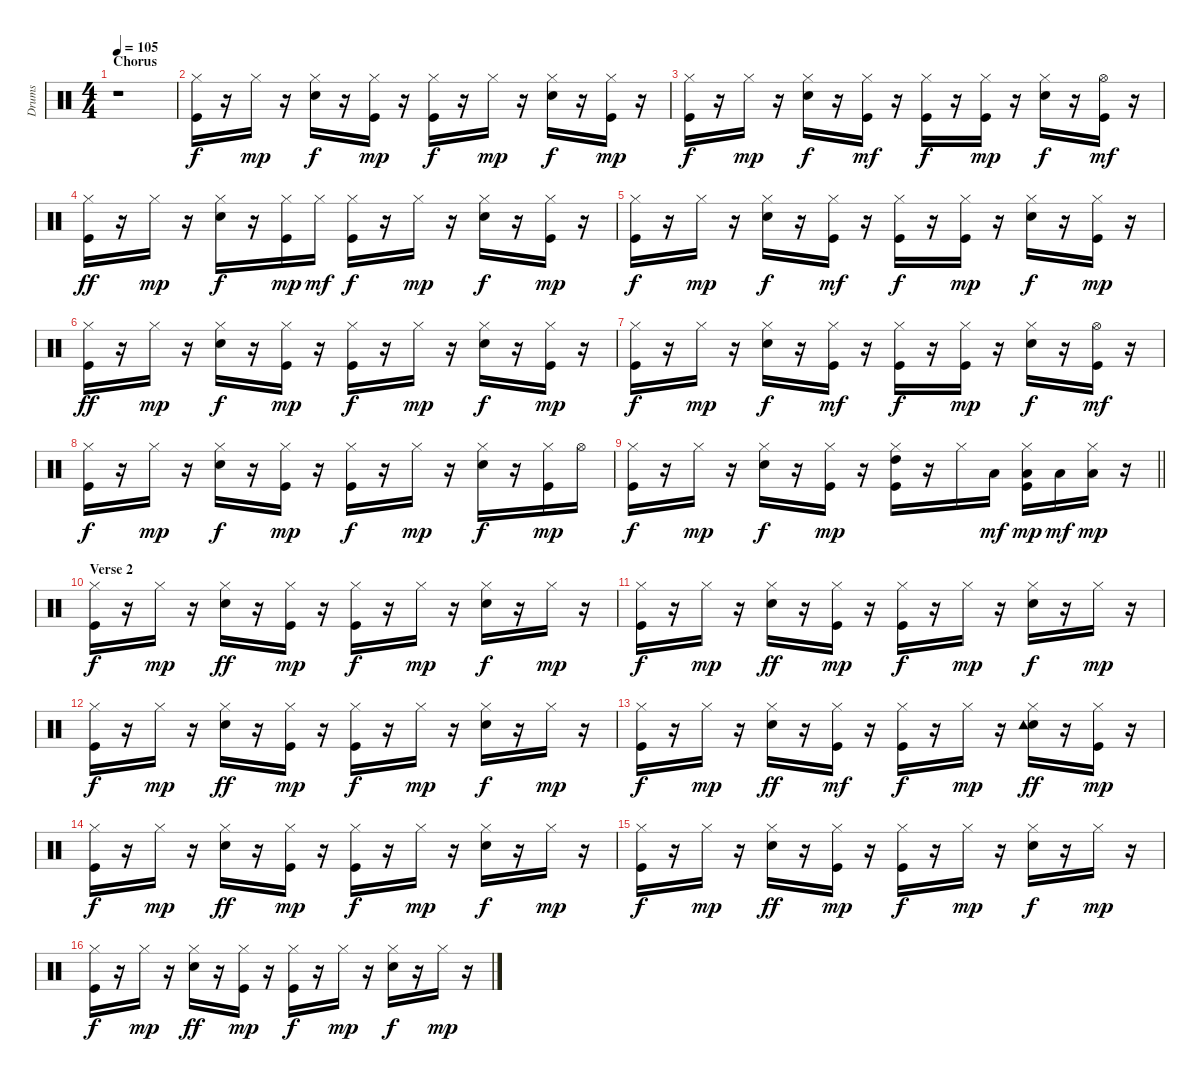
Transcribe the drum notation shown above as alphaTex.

\track ("Drums   " "Drums   ") {instrument percussion}
\staff {score}
\articulation defaults
\ts (4 4)
\section ("" "Chorus")
\tempo 105
\clef neutral
\ks c
r.1{dy f} |
("Kick (hit)" "Hi-Hat (closed)").16 r.16 "Hi-Hat (closed)".16{dy mp} r.16 ("Snare (hit) 2" "Hi-Hat (closed)").16{dy f} r.16 ("Kick (hit)" "Hi-Hat (closed)").16{dy mp} r.16 ("Kick (hit)" "Hi-Hat (closed)").16{dy f} r.16 "Hi-Hat (closed)".16{dy mp} r.16 ("Snare (hit) 2" "Hi-Hat (closed)").16{dy f} r.16 ("Kick (hit)" "Hi-Hat (closed)").16{dy mp} r.16 |
("Kick (hit)" "Hi-Hat (closed)").16{dy f} r.16 "Hi-Hat (closed)".16{dy mp} r.16 ("Snare (hit) 2" "Hi-Hat (closed)").16{dy f} r.16 ("Kick (hit)" "Hi-Hat (closed)").16{dy mf} r.16 ("Kick (hit)" "Hi-Hat (closed)").16{dy f} r.16 ("Kick (hit)" "Hi-Hat (closed)").16{dy mp} r.16 ("Snare (hit) 2" "Hi-Hat (closed)").16{dy f} r.16 ("Kick (hit)" "Hi-Hat (open)").16{dy mf} r.16 |
("Kick (hit)" "Hi-Hat (closed)").16{dy ff} r.16 "Hi-Hat (closed)".16{dy mp} r.16 ("Snare (hit) 2" "Hi-Hat (closed)").16{dy f} r.16 ("Kick (hit)" "Hi-Hat (closed)").16{dy mp} "Hi-Hat (closed)".16{dy mf} ("Kick (hit)" "Hi-Hat (closed)").16{dy f} r.16 "Hi-Hat (closed)".16{dy mp} r.16 ("Snare (hit) 2" "Hi-Hat (closed)").16{dy f} r.16 ("Kick (hit)" "Hi-Hat (closed)").16{dy mp} r.16 |
("Kick (hit)" "Hi-Hat (closed)").16{dy f} r.16 "Hi-Hat (closed)".16{dy mp} r.16 ("Snare (hit) 2" "Hi-Hat (closed)").16{dy f} r.16 ("Kick (hit)" "Hi-Hat (closed)").16{dy mf} r.16 ("Kick (hit)" "Hi-Hat (closed)").16{dy f} r.16 ("Kick (hit)" "Hi-Hat (closed)").16{dy mp} r.16 ("Snare (hit) 2" "Hi-Hat (closed)").16{dy f} r.16 ("Kick (hit)" "Hi-Hat (closed)").16{dy mp} r.16 |
("Kick (hit)" "Hi-Hat (closed)").16{dy ff} r.16 "Hi-Hat (closed)".16{dy mp} r.16 ("Snare (hit) 2" "Hi-Hat (closed)").16{dy f} r.16 ("Kick (hit)" "Hi-Hat (closed)").16{dy mp} r.16 ("Kick (hit)" "Hi-Hat (closed)").16{dy f} r.16 "Hi-Hat (closed)".16{dy mp} r.16 ("Snare (hit) 2" "Hi-Hat (closed)").16{dy f} r.16 ("Kick (hit)" "Hi-Hat (closed)").16{dy mp} r.16 |
("Kick (hit)" "Hi-Hat (closed)").16{dy f} r.16 "Hi-Hat (closed)".16{dy mp} r.16 ("Snare (hit) 2" "Hi-Hat (closed)").16{dy f} r.16 ("Kick (hit)" "Hi-Hat (closed)").16{dy mf} r.16 ("Kick (hit)" "Hi-Hat (closed)").16{dy f} r.16 ("Kick (hit)" "Hi-Hat (closed)").16{dy mp} r.16 ("Snare (hit) 2" "Hi-Hat (closed)").16{dy f} r.16 ("Kick (hit)" "Hi-Hat (open)").16{dy mf} r.16 |
("Kick (hit)" "Hi-Hat (closed)").16{dy f} r.16 "Hi-Hat (closed)".16{dy mp} r.16 ("Snare (hit) 2" "Hi-Hat (closed)").16{dy f} r.16 ("Kick (hit)" "Hi-Hat (closed)").16{dy mp} r.16 ("Kick (hit)" "Hi-Hat (closed)").16{dy f} r.16 "Hi-Hat (closed)".16{dy mp} r.16 ("Snare (hit) 2" "Hi-Hat (closed)").16{dy f} r.16 ("Kick (hit)" "Hi-Hat (closed)").16{dy mp} "Hi-Hat (open)".16 |
\barLineRight lightlight
("Kick (hit)" "Hi-Hat (closed)").16{dy f} r.16 "Hi-Hat (closed)".16{dy mp} r.16 ("Snare (hit) 2" "Hi-Hat (closed)").16{dy f} r.16 ("Kick (hit)" "Hi-Hat (closed)").16{dy mp} r.16 ("Kick (hit)" "Hi-Hat (closed)" "High Tom (hit)").16 r.16 "Hi-Hat (closed)".16 "Low Tom (hit)".16{dy mf} ("Kick (hit)" "Hi-Hat (closed)" "Low Tom (hit)").16{dy mp} "Low Floor Tom (hit)".16{dy mf} ("Hi-Hat (closed)" "Low Floor Tom (hit)").16{dy mp} r.16 |
\section ("" "Verse 2")
("Kick (hit)" "Hi-Hat (closed)").16{dy f} r.16 "Hi-Hat (closed)".16{dy mp} r.16 ("Snare (hit) 2" "Hi-Hat (closed)").16{dy ff} r.16 ("Kick (hit)" "Hi-Hat (closed)").16{dy mp} r.16 ("Kick (hit)" "Hi-Hat (closed)").16{dy f} r.16 "Hi-Hat (closed)".16{dy mp} r.16 ("Snare (hit) 2" "Hi-Hat (closed)").16{dy f} r.16 "Hi-Hat (closed)".16{dy mp} r.16 |
("Kick (hit)" "Hi-Hat (closed)").16{dy f} r.16 "Hi-Hat (closed)".16{dy mp} r.16 ("Snare (hit) 2" "Hi-Hat (closed)").16{dy ff} r.16 ("Kick (hit)" "Hi-Hat (closed)").16{dy mp} r.16 ("Kick (hit)" "Hi-Hat (closed)").16{dy f} r.16 "Hi-Hat (closed)".16{dy mp} r.16 ("Snare (hit) 2" "Hi-Hat (closed)").16{dy f} r.16 "Hi-Hat (closed)".16{dy mp} r.16 |
("Kick (hit)" "Hi-Hat (closed)").16{dy f} r.16 "Hi-Hat (closed)".16{dy mp} r.16 ("Snare (hit) 2" "Hi-Hat (closed)").16{dy ff} r.16 ("Kick (hit)" "Hi-Hat (closed)").16{dy mp} r.16 ("Kick (hit)" "Hi-Hat (closed)").16{dy f} r.16 "Hi-Hat (closed)".16{dy mp} r.16 ("Snare (hit) 2" "Hi-Hat (closed)").16{dy f} r.16 "Hi-Hat (closed)".16{dy mp} r.16 |
("Kick (hit)" "Hi-Hat (closed)").16{dy f} r.16 "Hi-Hat (closed)".16{dy mp} r.16 ("Snare (hit) 2" "Hi-Hat (closed)").16{dy ff} r.16 ("Kick (hit)" "Hi-Hat (closed)").16{dy mf} r.16 ("Kick (hit)" "Hi-Hat (closed)").16{dy f} r.16 "Hi-Hat (closed)".16{dy mp} r.16 ("Snare (hit) 2" "Hi-Hat (closed)" "Tambourine (hit)").16{dy ff} r.16 ("Kick (hit)" "Hi-Hat (closed)").16{dy mp} r.16 |
("Kick (hit)" "Hi-Hat (closed)").16{dy f} r.16 "Hi-Hat (closed)".16{dy mp} r.16 ("Snare (hit) 2" "Hi-Hat (closed)").16{dy ff} r.16 ("Kick (hit)" "Hi-Hat (closed)").16{dy mp} r.16 ("Kick (hit)" "Hi-Hat (closed)").16{dy f} r.16 "Hi-Hat (closed)".16{dy mp} r.16 ("Snare (hit) 2" "Hi-Hat (closed)").16{dy f} r.16 "Hi-Hat (closed)".16{dy mp} r.16 |
("Kick (hit)" "Hi-Hat (closed)").16{dy f} r.16 "Hi-Hat (closed)".16{dy mp} r.16 ("Snare (hit) 2" "Hi-Hat (closed)").16{dy ff} r.16 ("Kick (hit)" "Hi-Hat (closed)").16{dy mp} r.16 ("Kick (hit)" "Hi-Hat (closed)").16{dy f} r.16 "Hi-Hat (closed)".16{dy mp} r.16 ("Snare (hit) 2" "Hi-Hat (closed)").16{dy f} r.16 "Hi-Hat (closed)".16{dy mp} r.16 |
("Kick (hit)" "Hi-Hat (closed)").16{dy f} r.16 "Hi-Hat (closed)".16{dy mp} r.16 ("Snare (hit) 2" "Hi-Hat (closed)").16{dy ff} r.16 ("Kick (hit)" "Hi-Hat (closed)").16{dy mp} r.16 ("Kick (hit)" "Hi-Hat (closed)").16{dy f} r.16 "Hi-Hat (closed)".16{dy mp} r.16 ("Snare (hit) 2" "Hi-Hat (closed)").16{dy f} r.16 "Hi-Hat (closed)".16{dy mp} r.16
